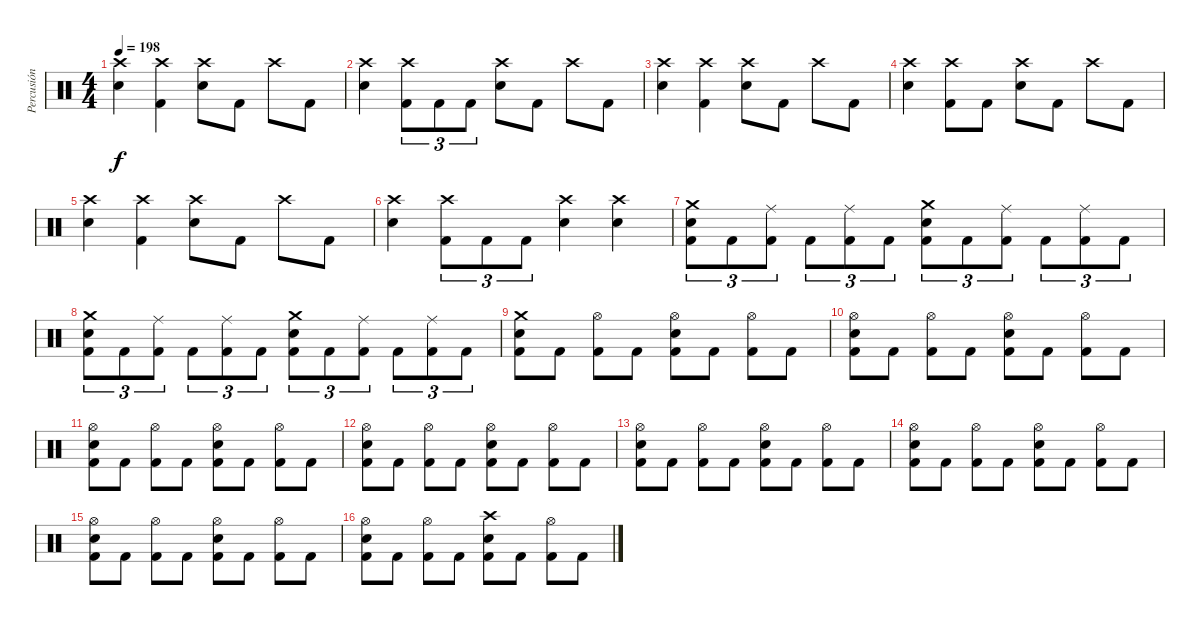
\track ("Percusión" "Percusión") {instrument percussion}
\staff {score}
\articulation defaults
\ts (4 4)
\tempo 198
\clef neutral
\ks c
("Crash high (hit)" "Electric Snare (hit)").4{dy f} ("Crash high (hit)" "Kick (hit) 2").4 ("Crash high (hit)" "Electric Snare (hit)").8 "Kick (hit) 2".8 "Crash high (hit)".8 "Kick (hit) 2".8 |
("Crash high (hit)" "Electric Snare (hit)").4 ("Crash high (hit)" "Kick (hit) 2").8{tu (3 2)} "Kick (hit) 2".8{tu (3 2)} "Kick (hit) 2".8{tu (3 2)} ("Crash high (hit)" "Electric Snare (hit)").8 "Kick (hit) 2".8 "Crash high (hit)".8 "Kick (hit) 2".8 |
("Crash high (hit)" "Electric Snare (hit)").4 ("Crash high (hit)" "Kick (hit) 2").4 ("Crash high (hit)" "Electric Snare (hit)").8 "Kick (hit) 2".8 "Crash high (hit)".8 "Kick (hit) 2".8 |
("Crash high (hit)" "Electric Snare (hit)").4 ("Crash high (hit)" "Kick (hit) 2").8 "Kick (hit) 2".8 ("Crash high (hit)" "Electric Snare (hit)").8 "Kick (hit) 2".8 "Crash high (hit)".8 "Kick (hit) 2".8 |
("Crash high (hit)" "Electric Snare (hit)").4 ("Crash high (hit)" "Kick (hit) 2").4 ("Crash high (hit)" "Electric Snare (hit)").8 "Kick (hit) 2".8 "Crash high (hit)".8 "Kick (hit) 2".8 |
("Crash high (hit)" "Electric Snare (hit)").4 ("Crash high (hit)" "Kick (hit) 2").8{tu (3 2)} "Kick (hit) 2".8{tu (3 2)} "Kick (hit) 2".8{tu (3 2)} ("Crash high (hit)" "Electric Snare (hit)").4 ("Crash high (hit)" "Electric Snare (hit)").4 |
("Crash medium (hit)" "Electric Snare (hit)" "Kick (hit) 2").8{tu (3 2)} "Kick (hit) 2".8{tu (3 2)} ("Ride (middle)" "Kick (hit) 2").8{tu (3 2)} "Kick (hit) 2".8{tu (3 2)} ("Ride (middle)" "Kick (hit) 2").8{tu (3 2)} "Kick (hit) 2".8{tu (3 2)} ("Crash medium (hit)" "Electric Snare (hit)" "Kick (hit) 2").8{tu (3 2)} "Kick (hit) 2".8{tu (3 2)} ("Ride (middle)" "Kick (hit) 2").8{tu (3 2)} "Kick (hit) 2".8{tu (3 2)} ("Ride (middle)" "Kick (hit) 2").8{tu (3 2)} "Kick (hit) 2".8{tu (3 2)} |
("Crash medium (hit)" "Electric Snare (hit)" "Kick (hit) 2").8{tu (3 2)} "Kick (hit) 2".8{tu (3 2)} ("Ride (middle)" "Kick (hit) 2").8{tu (3 2)} "Kick (hit) 2".8{tu (3 2)} ("Ride (middle)" "Kick (hit) 2").8{tu (3 2)} "Kick (hit) 2".8{tu (3 2)} ("Crash medium (hit)" "Electric Snare (hit)" "Kick (hit) 2").8{tu (3 2)} "Kick (hit) 2".8{tu (3 2)} ("Ride (middle)" "Kick (hit) 2").8{tu (3 2)} "Kick (hit) 2".8{tu (3 2)} ("Ride (middle)" "Kick (hit) 2").8{tu (3 2)} "Kick (hit) 2".8{tu (3 2)} |
("Crash medium (hit)" "Electric Snare (hit)" "Kick (hit) 2").8 "Kick (hit) 2".8 ("Hi-Hat (open)" "Kick (hit) 2").8 "Kick (hit) 2".8 ("Hi-Hat (open)" "Electric Snare (hit)" "Kick (hit) 2").8 "Kick (hit) 2".8 ("Hi-Hat (open)" "Kick (hit) 2").8 "Kick (hit) 2".8 |
("Hi-Hat (open)" "Electric Snare (hit)" "Kick (hit) 2").8 "Kick (hit) 2".8 ("Hi-Hat (open)" "Kick (hit) 2").8 "Kick (hit) 2".8 ("Hi-Hat (open)" "Electric Snare (hit)" "Kick (hit) 2").8 "Kick (hit) 2".8 ("Hi-Hat (open)" "Kick (hit) 2").8 "Kick (hit) 2".8 |
("Hi-Hat (open)" "Electric Snare (hit)" "Kick (hit) 2").8 "Kick (hit) 2".8 ("Hi-Hat (open)" "Kick (hit) 2").8 "Kick (hit) 2".8 ("Hi-Hat (open)" "Electric Snare (hit)" "Kick (hit) 2").8 "Kick (hit) 2".8 ("Hi-Hat (open)" "Kick (hit) 2").8 "Kick (hit) 2".8 |
("Hi-Hat (open)" "Electric Snare (hit)" "Kick (hit) 2").8 "Kick (hit) 2".8 ("Hi-Hat (open)" "Kick (hit) 2").8 "Kick (hit) 2".8 ("Hi-Hat (open)" "Electric Snare (hit)" "Kick (hit) 2").8 "Kick (hit) 2".8 ("Hi-Hat (open)" "Kick (hit) 2").8 "Kick (hit) 2".8 |
("Hi-Hat (open)" "Electric Snare (hit)" "Kick (hit) 2").8 "Kick (hit) 2".8 ("Hi-Hat (open)" "Kick (hit) 2").8 "Kick (hit) 2".8 ("Hi-Hat (open)" "Electric Snare (hit)" "Kick (hit) 2").8 "Kick (hit) 2".8 ("Hi-Hat (open)" "Kick (hit) 2").8 "Kick (hit) 2".8 |
("Hi-Hat (open)" "Electric Snare (hit)" "Kick (hit) 2").8 "Kick (hit) 2".8 ("Hi-Hat (open)" "Kick (hit) 2").8 "Kick (hit) 2".8 ("Hi-Hat (open)" "Electric Snare (hit)" "Kick (hit) 2").8 "Kick (hit) 2".8 ("Hi-Hat (open)" "Kick (hit) 2").8 "Kick (hit) 2".8 |
("Hi-Hat (open)" "Electric Snare (hit)" "Kick (hit) 2").8 "Kick (hit) 2".8 ("Hi-Hat (open)" "Kick (hit) 2").8 "Kick (hit) 2".8 ("Hi-Hat (open)" "Electric Snare (hit)" "Kick (hit) 2").8 "Kick (hit) 2".8 ("Hi-Hat (open)" "Kick (hit) 2").8 "Kick (hit) 2".8 |
("Hi-Hat (open)" "Electric Snare (hit)" "Kick (hit) 2").8 "Kick (hit) 2".8 ("Hi-Hat (open)" "Kick (hit) 2").8 "Kick (hit) 2".8 ("Crash high (hit)" "Electric Snare (hit)" "Kick (hit) 2").8 "Kick (hit) 2".8 ("Hi-Hat (open)" "Kick (hit) 2").8 "Kick (hit) 2".8
